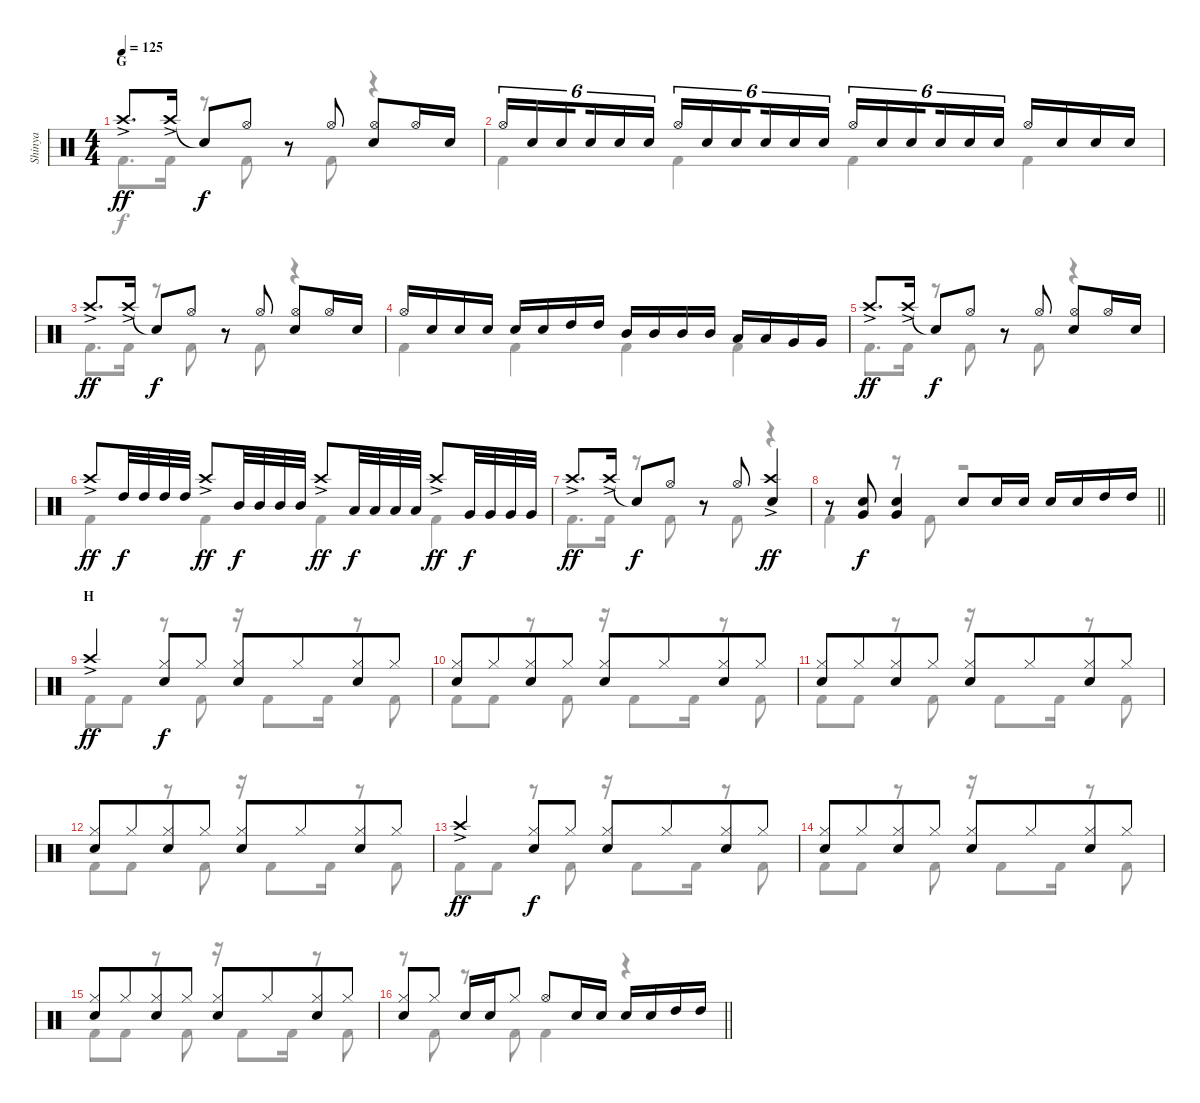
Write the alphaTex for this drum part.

\track ("Shinya" "Shinya") {instrument percussion}
\staff {score}
\articulation defaults
\voice
\ts (4 4)
\section ("" "G")
\tempo 125
\clef neutral
\ks c "Crash high (hit)"{ac}.8{d dy ff} "Crash high (hit)"{ac}.16 "Snare (hit)"{t}.8{dy f} "Hi-Hat (open)".8
r.8 "Hi-Hat (open)".8 ("Hi-Hat (open)" "Snare (hit) 2").8 "Hi-Hat (open)".16 "Snare (hit) 2".16 |
"Hi-Hat (open)".16{tu (6 4) beam merge} "Snare (hit) 2".16{tu (6 4) beam merge} "Snare (hit) 2".16{tu (6 4) beam splitsecondary} "Snare (hit) 2".16{tu (6 4) beam merge} "Snare (hit) 2".16{tu (6 4) beam merge} "Snare (hit) 2".16{tu (6 4) beam split} "Hi-Hat (open)".16{tu (6 4) beam merge} "Snare (hit) 2".16{tu (6 4) beam merge} "Snare (hit) 2".16{tu (6 4) beam splitsecondary} "Snare (hit) 2".16{tu (6 4) beam merge} "Snare (hit) 2".16{tu (6 4) beam merge} "Snare (hit) 2".16{tu (6 4) beam split} "Hi-Hat (open)".16{tu (6 4) beam merge} "Snare (hit) 2".16{tu (6 4) beam merge} "Snare (hit) 2".16{tu (6 4) beam splitsecondary} "Snare (hit) 2".16{tu (6 4) beam merge} "Snare (hit) 2".16{tu (6 4) beam merge} "Snare (hit) 2".16{tu (6 4)} "Hi-Hat (open)".16 "Snare (hit) 2".16 "Snare (hit) 2".16 "Snare (hit) 2".16 |
"Crash high (hit)"{ac}.8{d dy ff} "Crash high (hit)"{ac}.16 "Snare (hit)"{t}.8{dy f} "Hi-Hat (open)".8 r.8 "Hi-Hat (open)".8 ("Hi-Hat (open)" "Snare (hit) 2").8 "Hi-Hat (open)".16 "Snare (hit) 2".16 |
"Hi-Hat (open)".16 "Snare (hit) 2".16 "Snare (hit) 2".16 "Snare (hit) 2".16 "Snare (hit) 2".16 "Snare (hit) 2".16 "High Tom (hit)".16 "High Tom (hit)".16 "Mid Tom (hit)".16 "Mid Tom (hit)".16 "Mid Tom (hit)".16 "Mid Tom (hit)".16 "Low Tom (hit)".16 "Low Tom (hit)".16 "Very Low Tom (hit)".16 "Very Low Tom (hit)".16 |
"Crash high (hit)"{ac}.8{d dy ff} "Crash high (hit)"{ac}.16 "Snare (hit)"{t}.8{dy f} "Hi-Hat (open)".8 r.8 "Hi-Hat (open)".8 ("Hi-Hat (open)" "Snare (hit) 2").8 "Hi-Hat (open)".16 "Snare (hit) 2".16 |
"Crash high (hit)"{ac}.8{dy ff} "High Tom (hit)".32{dy f} "High Tom (hit)".32 "High Tom (hit)".32 "High Tom (hit)".32 "Crash high (hit)"{ac}.8{dy ff} "Mid Tom (hit)".32{dy f} "Mid Tom (hit)".32 "Mid Tom (hit)".32 "Mid Tom (hit)".32 "Crash high (hit)"{ac}.8{dy ff} "Low Tom (hit)".32{dy f} "Low Tom (hit)".32 "Low Tom (hit)".32 "Low Tom (hit)".32 "Crash high (hit)"{ac}.8{dy ff} "Very Low Tom (hit)".32{dy f} "Very Low Tom (hit)".32 "Very Low Tom (hit)".32 "Very Low Tom (hit)".32 |
"Crash high (hit)"{ac}.8{d dy ff} "Crash high (hit)"{ac}.16 "Snare (hit)"{t}.8{dy f} "Hi-Hat (open)".8 r.8 "Hi-Hat (open)".8 ("Crash high (hit)"{ac} "Snare (hit) 2").4{dy ff} |
\barLineRight lightlight
r.8 ("Snare (hit) 2" "Very Low Tom (hit)").8{dy f} ("Snare (hit) 2" "Very Low Tom (hit)").4 "Snare (hit) 2".8 "Snare (hit) 2".16 "Snare (hit) 2".16 "Snare (hit) 2".16 "Snare (hit) 2".16 "High Tom (hit)".16 "High Tom (hit)".16 |
\section ("" "H")
"Crash high (hit)"{ac}.4{dy ff} ("Hi-Hat (closed)" "Snare (hit) 2").8{dy f} "Hi-Hat (closed)".8 ("Hi-Hat (closed)" "Snare (hit) 2").8 "Hi-Hat (closed)".8{beam merge} ("Hi-Hat (closed)" "Snare (hit) 2").8 "Hi-Hat (closed)".8 |
("Hi-Hat (closed)" "Snare (hit) 2").8 "Hi-Hat (closed)".8{beam merge} ("Hi-Hat (closed)" "Snare (hit) 2").8 "Hi-Hat (closed)".8 ("Hi-Hat (closed)" "Snare (hit) 2").8 "Hi-Hat (closed)".8{beam merge} ("Hi-Hat (closed)" "Snare (hit) 2").8 "Hi-Hat (closed)".8 |
("Hi-Hat (closed)" "Snare (hit) 2").8 "Hi-Hat (closed)".8{beam merge} ("Hi-Hat (closed)" "Snare (hit) 2").8 "Hi-Hat (closed)".8 ("Hi-Hat (closed)" "Snare (hit) 2").8 "Hi-Hat (closed)".8{beam merge} ("Hi-Hat (closed)" "Snare (hit) 2").8 "Hi-Hat (closed)".8 |
("Hi-Hat (closed)" "Snare (hit) 2").8 "Hi-Hat (closed)".8{beam merge} ("Hi-Hat (closed)" "Snare (hit) 2").8 "Hi-Hat (closed)".8 ("Hi-Hat (closed)" "Snare (hit) 2").8 "Hi-Hat (closed)".8{beam merge} ("Hi-Hat (closed)" "Snare (hit) 2").8 "Hi-Hat (closed)".8 |
"Crash high (hit)"{ac}.4{dy ff} ("Hi-Hat (closed)" "Snare (hit) 2").8{dy f} "Hi-Hat (closed)".8 ("Hi-Hat (closed)" "Snare (hit) 2").8 "Hi-Hat (closed)".8{beam merge} ("Hi-Hat (closed)" "Snare (hit) 2").8 "Hi-Hat (closed)".8 |
("Hi-Hat (closed)" "Snare (hit) 2").8 "Hi-Hat (closed)".8{beam merge} ("Hi-Hat (closed)" "Snare (hit) 2").8 "Hi-Hat (closed)".8 ("Hi-Hat (closed)" "Snare (hit) 2").8 "Hi-Hat (closed)".8{beam merge} ("Hi-Hat (closed)" "Snare (hit) 2").8 "Hi-Hat (closed)".8 |
("Hi-Hat (closed)" "Snare (hit) 2").8 "Hi-Hat (closed)".8{beam merge} ("Hi-Hat (closed)" "Snare (hit) 2").8 "Hi-Hat (closed)".8 ("Hi-Hat (closed)" "Snare (hit) 2").8 "Hi-Hat (closed)".8{beam merge} ("Hi-Hat (closed)" "Snare (hit) 2").8 "Hi-Hat (closed)".8 |
\barLineRight lightlight
("Hi-Hat (closed)" "Snare (hit) 2").8 "Hi-Hat (closed)".8 "Snare (hit) 2".16 "Snare (hit) 2".16 "Hi-Hat (closed)".8 "Hi-Hat (open)".8 "Snare (hit) 2".16 "Snare (hit) 2".16 "Snare (hit) 2".16 "Snare (hit) 2".16 "High Tom (hit)".16 "High Tom (hit)".16
\voice
\clef neutral
\ottava regular
\simile none
\ks c "Kick (hit) 2".8{d dy f} "Kick (hit) 2".16
r.8 "Kick (hit) 2".8 r.8 "Kick (hit) 2".8 r.4 |
"Kick (hit) 2".4 "Kick (hit) 2".4 "Kick (hit) 2".4 "Kick (hit) 2".4 |
"Kick (hit) 2".8{d} "Kick (hit) 2".16 r.8 "Kick (hit) 2".8 r.8 "Kick (hit) 2".8 r.4 |
"Kick (hit) 2".4 "Kick (hit) 2".4 "Kick (hit) 2".4 "Kick (hit) 2".4 |
"Kick (hit) 2".8{d} "Kick (hit) 2".16 r.8 "Kick (hit) 2".8 r.8 "Kick (hit) 2".8 r.4 |
"Kick (hit) 2".4 "Kick (hit) 2".4 "Kick (hit) 2".4 "Kick (hit) 2".4 |
"Kick (hit) 2".8{d} "Kick (hit) 2".16 r.8 "Kick (hit) 2".8 r.8 "Kick (hit) 2".8 r.4 |
\barLineRight lightlight "Kick (hit) 2".4
r.8 "Kick (hit) 2".8 r.2 |
"Kick (hit) 2".8 "Kick (hit) 2".8 r.8 "Kick (hit) 2".8 r.16 "Kick (hit) 2".8 "Kick (hit) 2".16 r.8 "Kick (hit) 2".8 |
"Kick (hit) 2".8 "Kick (hit) 2".8 r.8 "Kick (hit) 2".8 r.16 "Kick (hit) 2".8 "Kick (hit) 2".16 r.8 "Kick (hit) 2".8 |
"Kick (hit) 2".8 "Kick (hit) 2".8 r.8 "Kick (hit) 2".8 r.16 "Kick (hit) 2".8 "Kick (hit) 2".16 r.8 "Kick (hit) 2".8 |
"Kick (hit) 2".8 "Kick (hit) 2".8 r.8 "Kick (hit) 2".8 r.16 "Kick (hit) 2".8 "Kick (hit) 2".16 r.8 "Kick (hit) 2".8 |
"Kick (hit) 2".8 "Kick (hit) 2".8 r.8 "Kick (hit) 2".8 r.16 "Kick (hit) 2".8 "Kick (hit) 2".16 r.8 "Kick (hit) 2".8 |
"Kick (hit) 2".8 "Kick (hit) 2".8 r.8 "Kick (hit) 2".8 r.16 "Kick (hit) 2".8 "Kick (hit) 2".16 r.8 "Kick (hit) 2".8 |
"Kick (hit) 2".8 "Kick (hit) 2".8 r.8 "Kick (hit) 2".8 r.16 "Kick (hit) 2".8 "Kick (hit) 2".16 r.8 "Kick (hit) 2".8 |
\barLineRight lightlight
r.8 "Kick (hit) 2".8 r.8 "Kick (hit) 2".8 "Kick (hit) 2".4 r.4
